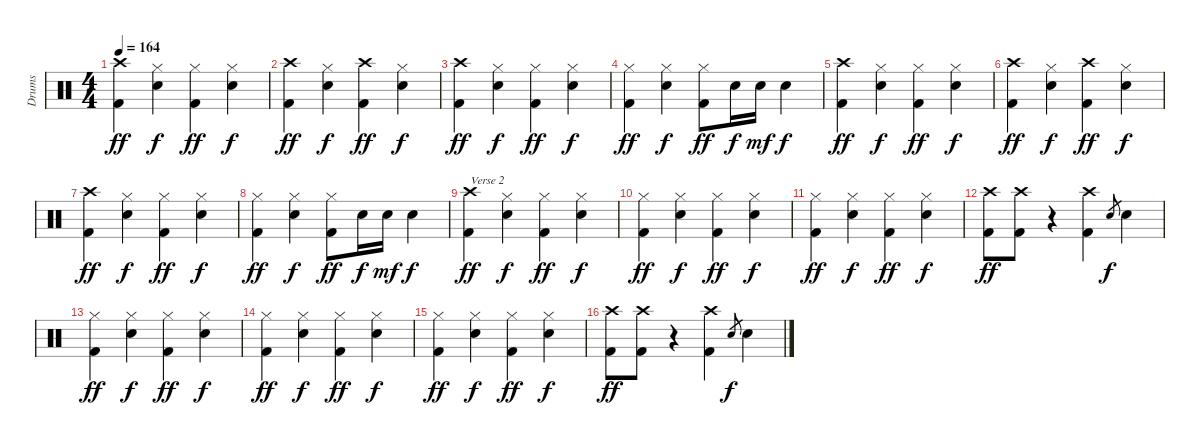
\track ("Drums" "Drums") {instrument percussion}
\staff {score}
\articulation defaults
\ts (4 4)
\tempo 164
\clef neutral
\ks c
("Crash high (hit)" "Kick (hit) 2").4{dy ff} ("Hi-Hat (closed)" "Snare (hit) 2").4{dy f} ("Hi-Hat (closed)" "Kick (hit) 2").4{dy ff} ("Hi-Hat (closed)" "Snare (hit) 2").4{dy f} |
("Crash high (hit)" "Kick (hit) 2").4{dy ff} ("Hi-Hat (closed)" "Snare (hit) 2").4{dy f} ("Crash high (hit)" "Kick (hit) 2").4{dy ff} ("Hi-Hat (closed)" "Snare (hit) 2").4{dy f} |
("Crash high (hit)" "Kick (hit) 2").4{dy ff} ("Hi-Hat (closed)" "Snare (hit) 2").4{dy f} ("Hi-Hat (closed)" "Kick (hit) 2").4{dy ff} ("Hi-Hat (closed)" "Snare (hit) 2").4{dy f} |
("Hi-Hat (closed)" "Kick (hit) 2").4{dy ff} ("Hi-Hat (closed)" "Snare (hit) 2").4{dy f} ("Hi-Hat (closed)" "Kick (hit) 2").8{dy ff} "Snare (hit) 2".16{dy f} "Snare (hit) 2".16{dy mf} "Snare (hit) 2".4{dy f} |
("Crash high (hit)" "Kick (hit) 2").4{dy ff} ("Hi-Hat (closed)" "Snare (hit) 2").4{dy f} ("Hi-Hat (closed)" "Kick (hit) 2").4{dy ff} ("Hi-Hat (closed)" "Snare (hit) 2").4{dy f} |
("Crash high (hit)" "Kick (hit) 2").4{dy ff} ("Hi-Hat (closed)" "Snare (hit) 2").4{dy f} ("Crash high (hit)" "Kick (hit) 2").4{dy ff} ("Hi-Hat (closed)" "Snare (hit) 2").4{dy f} |
("Crash high (hit)" "Kick (hit) 2").4{dy ff} ("Hi-Hat (closed)" "Snare (hit) 2").4{dy f} ("Hi-Hat (closed)" "Kick (hit) 2").4{dy ff} ("Hi-Hat (closed)" "Snare (hit) 2").4{dy f} |
("Hi-Hat (closed)" "Kick (hit) 2").4{dy ff} ("Hi-Hat (closed)" "Snare (hit) 2").4{dy f} ("Hi-Hat (closed)" "Kick (hit) 2").8{dy ff} "Snare (hit) 2".16{dy f} "Snare (hit) 2".16{dy mf} "Snare (hit) 2".4{dy f} |
("Crash high (hit)" "Kick (hit) 2").4{txt "Verse 2" dy ff} ("Hi-Hat (closed)" "Snare (hit) 2").4{dy f} ("Hi-Hat (closed)" "Kick (hit) 2").4{dy ff} ("Hi-Hat (closed)" "Snare (hit) 2").4{dy f} |
("Hi-Hat (closed)" "Kick (hit) 2").4{dy ff} ("Hi-Hat (closed)" "Snare (hit) 2").4{dy f} ("Hi-Hat (closed)" "Kick (hit) 2").4{dy ff} ("Hi-Hat (closed)" "Snare (hit) 2").4{dy f} |
("Hi-Hat (closed)" "Kick (hit) 2").4{dy ff} ("Hi-Hat (closed)" "Snare (hit) 2").4{dy f} ("Hi-Hat (closed)" "Kick (hit) 2").4{dy ff} ("Hi-Hat (closed)" "Snare (hit) 2").4{dy f} |
("Crash high (hit)" "Kick (hit) 2").8{dy ff} ("Crash high (hit)" "Kick (hit) 2").8 r.4 ("Crash high (hit)" "Kick (hit) 2").4 "Snare (hit) 2".8{gr dy f} "Snare (hit) 2".4 |
("Hi-Hat (closed)" "Kick (hit) 2").4{dy ff} ("Hi-Hat (closed)" "Snare (hit) 2").4{dy f} ("Hi-Hat (closed)" "Kick (hit) 2").4{dy ff} ("Hi-Hat (closed)" "Snare (hit) 2").4{dy f} |
("Hi-Hat (closed)" "Kick (hit) 2").4{dy ff} ("Hi-Hat (closed)" "Snare (hit) 2").4{dy f} ("Hi-Hat (closed)" "Kick (hit) 2").4{dy ff} ("Hi-Hat (closed)" "Snare (hit) 2").4{dy f} |
("Hi-Hat (closed)" "Kick (hit) 2").4{dy ff} ("Hi-Hat (closed)" "Snare (hit) 2").4{dy f} ("Hi-Hat (closed)" "Kick (hit) 2").4{dy ff} ("Hi-Hat (closed)" "Snare (hit) 2").4{dy f} |
("Crash high (hit)" "Kick (hit) 2").8{dy ff} ("Crash high (hit)" "Kick (hit) 2").8 r.4 ("Crash high (hit)" "Kick (hit) 2").4 "Snare (hit) 2".8{gr dy f} "Snare (hit) 2".4
